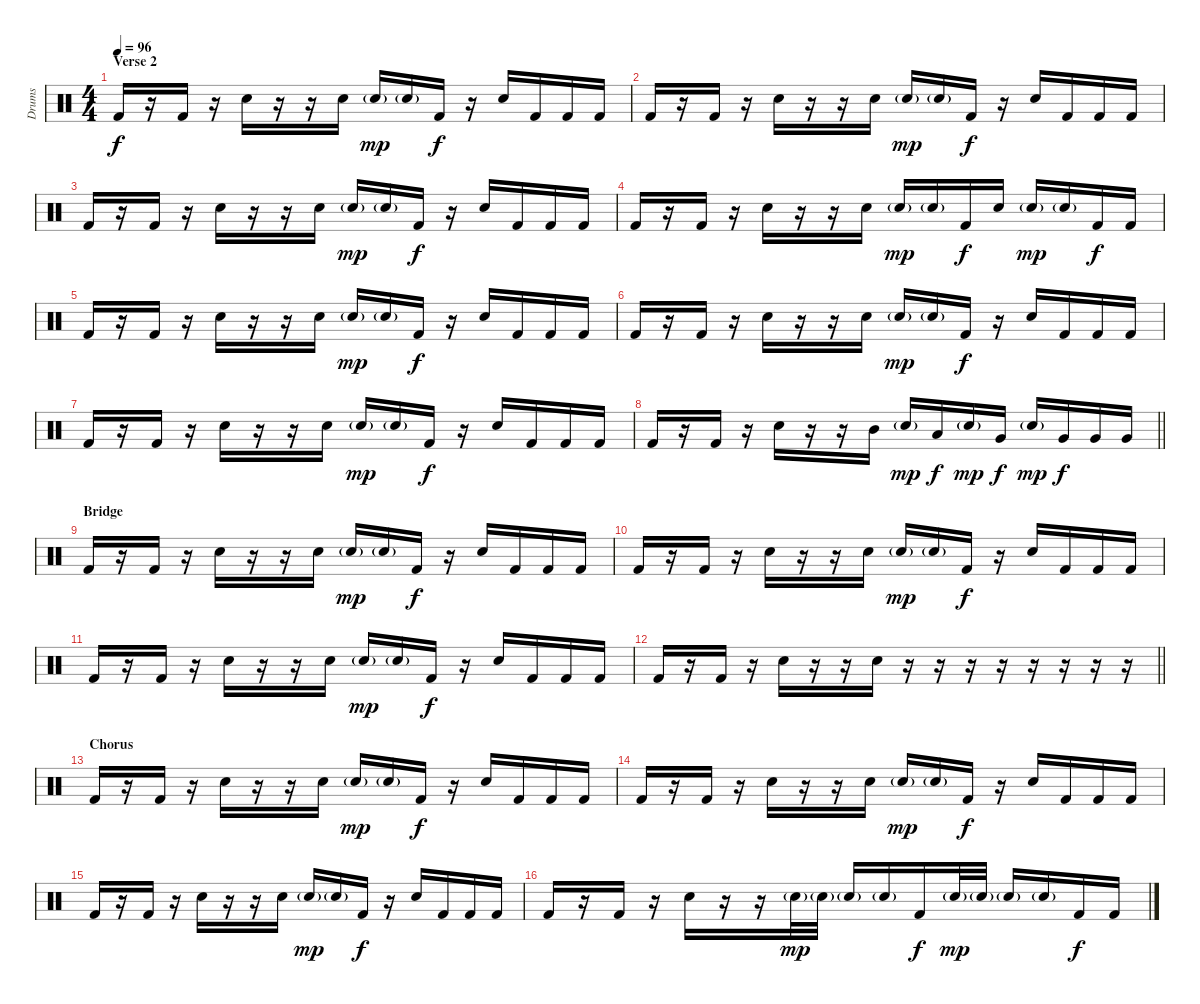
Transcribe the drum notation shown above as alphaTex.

\track ("Drums" "Drums") {instrument percussion}
\staff {score}
\articulation defaults
\ts (4 4)
\section ("" "Verse 2")
\tempo 96
\clef neutral
\ks c "Kick (hit) 2".16{dy f}
r.16 "Kick (hit) 2".16 r.16 "Snare (hit) 2".16 r.16 r.16 "Snare (hit) 2".16 "Snare (hit) 2"{g}.16{dy mp} "Snare (hit) 2"{g}.16 "Kick (hit) 2".16{dy f} r.16 "Snare (hit) 2".16 "Kick (hit) 2".16 "Kick (hit) 2".16 "Kick (hit) 2".16 |
"Kick (hit) 2".16 r.16 "Kick (hit) 2".16 r.16 "Snare (hit) 2".16 r.16 r.16 "Snare (hit) 2".16 "Snare (hit) 2"{g}.16{dy mp} "Snare (hit) 2"{g}.16 "Kick (hit) 2".16{dy f} r.16 "Snare (hit) 2".16 "Kick (hit) 2".16 "Kick (hit) 2".16 "Kick (hit) 2".16 |
"Kick (hit) 2".16 r.16 "Kick (hit) 2".16 r.16 "Snare (hit) 2".16 r.16 r.16 "Snare (hit) 2".16 "Snare (hit) 2"{g}.16{dy mp} "Snare (hit) 2"{g}.16 "Kick (hit) 2".16{dy f} r.16 "Snare (hit) 2".16 "Kick (hit) 2".16 "Kick (hit) 2".16 "Kick (hit) 2".16 |
"Kick (hit) 2".16 r.16 "Kick (hit) 2".16 r.16 "Snare (hit) 2".16 r.16 r.16 "Snare (hit) 2".16 "Snare (hit) 2"{g}.16{dy mp} "Snare (hit) 2"{g}.16 "Kick (hit) 2".16{dy f} "Snare (hit) 2".16 "Snare (hit) 2"{g}.16{dy mp} "Snare (hit) 2"{g}.16 "Kick (hit) 2".16{dy f} "Kick (hit) 2".16 |
"Kick (hit) 2".16 r.16 "Kick (hit) 2".16 r.16 "Snare (hit) 2".16 r.16 r.16 "Snare (hit) 2".16 "Snare (hit) 2"{g}.16{dy mp} "Snare (hit) 2"{g}.16 "Kick (hit) 2".16{dy f} r.16 "Snare (hit) 2".16 "Kick (hit) 2".16 "Kick (hit) 2".16 "Kick (hit) 2".16 |
"Kick (hit) 2".16 r.16 "Kick (hit) 2".16 r.16 "Snare (hit) 2".16 r.16 r.16 "Snare (hit) 2".16 "Snare (hit) 2"{g}.16{dy mp} "Snare (hit) 2"{g}.16 "Kick (hit) 2".16{dy f} r.16 "Snare (hit) 2".16 "Kick (hit) 2".16 "Kick (hit) 2".16 "Kick (hit) 2".16 |
"Kick (hit) 2".16 r.16 "Kick (hit) 2".16 r.16 "Snare (hit) 2".16 r.16 r.16 "Snare (hit) 2".16 "Snare (hit) 2"{g}.16{dy mp} "Snare (hit) 2"{g}.16 "Kick (hit) 2".16{dy f} r.16 "Snare (hit) 2".16 "Kick (hit) 2".16 "Kick (hit) 2".16 "Kick (hit) 2".16 |
\barLineRight lightlight "Kick (hit) 2".16
r.16 "Kick (hit) 2".16 r.16 "Snare (hit) 2".16 r.16 r.16 "Mid Tom (hit)".16 "Snare (hit) 2"{g}.16{dy mp} "Low Tom (hit)".16{dy f} "Snare (hit) 2"{g}.16{dy mp} "Very Low Tom (hit)".16{dy f} "Snare (hit) 2"{g}.16{dy mp} "Very Low Tom (hit)".16{dy f} "Very Low Tom (hit)".16 "Very Low Tom (hit)".16 |
\section ("" "Bridge")
"Kick (hit) 2".16 r.16 "Kick (hit) 2".16 r.16 "Snare (hit) 2".16 r.16 r.16 "Snare (hit) 2".16 "Snare (hit) 2"{g}.16{dy mp} "Snare (hit) 2"{g}.16 "Kick (hit) 2".16{dy f} r.16 "Snare (hit) 2".16 "Kick (hit) 2".16 "Kick (hit) 2".16 "Kick (hit) 2".16 |
"Kick (hit) 2".16 r.16 "Kick (hit) 2".16 r.16 "Snare (hit) 2".16 r.16 r.16 "Snare (hit) 2".16 "Snare (hit) 2"{g}.16{dy mp} "Snare (hit) 2"{g}.16 "Kick (hit) 2".16{dy f} r.16 "Snare (hit) 2".16 "Kick (hit) 2".16 "Kick (hit) 2".16 "Kick (hit) 2".16 |
"Kick (hit) 2".16 r.16 "Kick (hit) 2".16 r.16 "Snare (hit) 2".16 r.16 r.16 "Snare (hit) 2".16 "Snare (hit) 2"{g}.16{dy mp} "Snare (hit) 2"{g}.16 "Kick (hit) 2".16{dy f} r.16 "Snare (hit) 2".16 "Kick (hit) 2".16 "Kick (hit) 2".16 "Kick (hit) 2".16 |
\barLineRight lightlight "Kick (hit) 2".16
r.16 "Kick (hit) 2".16 r.16 "Snare (hit) 2".16 r.16 r.16 "Snare (hit) 2".16 r.16 r.16 r.16 r.16 r.16 r.16 r.16 r.16 |
\section ("" "Chorus")
"Kick (hit) 2".16 r.16 "Kick (hit) 2".16 r.16 "Snare (hit) 2".16 r.16 r.16 "Snare (hit) 2".16 "Snare (hit) 2"{g}.16{dy mp} "Snare (hit) 2"{g}.16 "Kick (hit) 2".16{dy f} r.16 "Snare (hit) 2".16 "Kick (hit) 2".16 "Kick (hit) 2".16 "Kick (hit) 2".16 |
"Kick (hit) 2".16 r.16 "Kick (hit) 2".16 r.16 "Snare (hit) 2".16 r.16 r.16 "Snare (hit) 2".16 "Snare (hit) 2"{g}.16{dy mp} "Snare (hit) 2"{g}.16 "Kick (hit) 2".16{dy f} r.16 "Snare (hit) 2".16 "Kick (hit) 2".16 "Kick (hit) 2".16 "Kick (hit) 2".16 |
"Kick (hit) 2".16 r.16 "Kick (hit) 2".16 r.16 "Snare (hit) 2".16 r.16 r.16 "Snare (hit) 2".16 "Snare (hit) 2"{g}.16{dy mp} "Snare (hit) 2"{g}.16 "Kick (hit) 2".16{dy f} r.16 "Snare (hit) 2".16 "Kick (hit) 2".16 "Kick (hit) 2".16 "Kick (hit) 2".16 |
"Kick (hit) 2".16 r.16 "Kick (hit) 2".16 r.16 "Snare (hit) 2".16 r.16 r.16 "Snare (hit) 2"{g}.32{dy mp} "Snare (hit) 2"{g}.32 "Snare (hit) 2"{g}.16 "Snare (hit) 2"{g}.16 "Kick (hit) 2".16{dy f} "Snare (hit) 2"{g}.32{dy mp} "Snare (hit) 2"{g}.32 "Snare (hit) 2"{g}.16 "Snare (hit) 2"{g}.16 "Kick (hit) 2".16{dy f} "Kick (hit) 2".16
